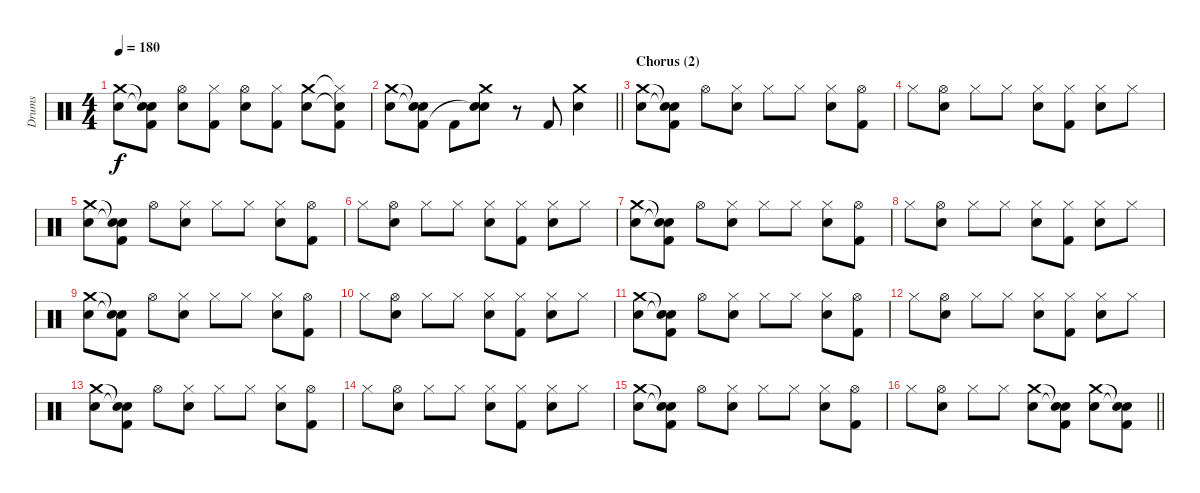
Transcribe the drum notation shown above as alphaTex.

\track ("Drums" "Drums") {instrument percussion}
\staff {score}
\articulation defaults
\ts (4 4)
\tempo 180
\clef neutral
\ks c
("Crash medium (hit)" "Electric Snare (hit)").8{dy f} ("Snare (hit)"{t} "Snare (hit)"{t} "Kick (hit) 2").8 ("Hi-Hat (open)" "Electric Snare (hit)").8 ("Hi-Hat (closed)" "Kick (hit) 2").8 ("Hi-Hat (open)" "Electric Snare (hit)").8 ("Hi-Hat (closed)" "Kick (hit) 2").8 ("Crash medium (hit)" "Electric Snare (hit)").8 ("Hi-Hat (closed)"{t} "Snare (hit)"{t} "Kick (hit) 2").8 |
\barLineRight lightlight
("Crash medium (hit)" "Electric Snare (hit)").8 ("Snare (hit)"{t} "Snare (hit)"{t} "Kick (hit) 2").8 "Kick (hit) 2".8 ("Crash medium (hit)" "Electric Snare (hit)" "Snare (hit)"{t}).8 r.8 "Kick (hit) 2".8 ("Crash medium (hit)" "Electric Snare (hit)").4 |
\section ("" "Chorus (2)")
("Crash medium (hit)" "Electric Snare (hit)").8 ("Snare (hit)"{t} "Snare (hit)"{t} "Kick (hit) 2").8 "Hi-Hat (open)".8 ("Hi-Hat (closed)" "Electric Snare (hit)").8 "Hi-Hat (closed)".8 "Hi-Hat (closed)".8 ("Hi-Hat (closed)" "Electric Snare (hit)").8 ("Hi-Hat (open)" "Kick (hit) 2").8 |
"Hi-Hat (closed)".8 ("Hi-Hat (open)" "Electric Snare (hit)").8 "Hi-Hat (closed)".8 "Hi-Hat (closed)".8 ("Hi-Hat (closed)" "Electric Snare (hit)").8 ("Hi-Hat (closed)" "Kick (hit) 2").8 ("Hi-Hat (closed)" "Electric Snare (hit)").8 "Hi-Hat (closed)".8 |
("Crash medium (hit)" "Electric Snare (hit)").8 ("Snare (hit)"{t} "Snare (hit)"{t} "Kick (hit) 2").8 "Hi-Hat (open)".8 ("Hi-Hat (closed)" "Electric Snare (hit)").8 "Hi-Hat (closed)".8 "Hi-Hat (closed)".8 ("Hi-Hat (closed)" "Electric Snare (hit)").8 ("Hi-Hat (open)" "Kick (hit) 2").8 |
"Hi-Hat (closed)".8 ("Hi-Hat (open)" "Electric Snare (hit)").8 "Hi-Hat (closed)".8 "Hi-Hat (closed)".8 ("Hi-Hat (closed)" "Electric Snare (hit)").8 ("Hi-Hat (closed)" "Kick (hit) 2").8 ("Hi-Hat (closed)" "Electric Snare (hit)").8 "Hi-Hat (closed)".8 |
("Crash medium (hit)" "Electric Snare (hit)").8 ("Snare (hit)"{t} "Snare (hit)"{t} "Kick (hit) 2").8 "Hi-Hat (open)".8 ("Hi-Hat (closed)" "Electric Snare (hit)").8 "Hi-Hat (closed)".8 "Hi-Hat (closed)".8 ("Hi-Hat (closed)" "Electric Snare (hit)").8 ("Hi-Hat (open)" "Kick (hit) 2").8 |
"Hi-Hat (closed)".8 ("Hi-Hat (open)" "Electric Snare (hit)").8 "Hi-Hat (closed)".8 "Hi-Hat (closed)".8 ("Hi-Hat (closed)" "Electric Snare (hit)").8 ("Hi-Hat (closed)" "Kick (hit) 2").8 ("Hi-Hat (closed)" "Electric Snare (hit)").8 "Hi-Hat (closed)".8 |
("Crash medium (hit)" "Electric Snare (hit)").8 ("Snare (hit)"{t} "Snare (hit)"{t} "Kick (hit) 2").8 "Hi-Hat (open)".8 ("Hi-Hat (closed)" "Electric Snare (hit)").8 "Hi-Hat (closed)".8 "Hi-Hat (closed)".8 ("Hi-Hat (closed)" "Electric Snare (hit)").8 ("Hi-Hat (open)" "Kick (hit) 2").8 |
"Hi-Hat (closed)".8 ("Hi-Hat (open)" "Electric Snare (hit)").8 "Hi-Hat (closed)".8 "Hi-Hat (closed)".8 ("Hi-Hat (closed)" "Electric Snare (hit)").8 ("Hi-Hat (closed)" "Kick (hit) 2").8 ("Hi-Hat (closed)" "Electric Snare (hit)").8 "Hi-Hat (closed)".8 |
("Crash medium (hit)" "Electric Snare (hit)").8 ("Snare (hit)"{t} "Snare (hit)"{t} "Kick (hit) 2").8 "Hi-Hat (open)".8 ("Hi-Hat (closed)" "Electric Snare (hit)").8 "Hi-Hat (closed)".8 "Hi-Hat (closed)".8 ("Hi-Hat (closed)" "Electric Snare (hit)").8 ("Hi-Hat (open)" "Kick (hit) 2").8 |
"Hi-Hat (closed)".8 ("Hi-Hat (open)" "Electric Snare (hit)").8 "Hi-Hat (closed)".8 "Hi-Hat (closed)".8 ("Hi-Hat (closed)" "Electric Snare (hit)").8 ("Hi-Hat (closed)" "Kick (hit) 2").8 ("Hi-Hat (closed)" "Electric Snare (hit)").8 "Hi-Hat (closed)".8 |
("Crash medium (hit)" "Electric Snare (hit)").8 ("Snare (hit)"{t} "Snare (hit)"{t} "Kick (hit) 2").8 "Hi-Hat (open)".8 ("Hi-Hat (closed)" "Electric Snare (hit)").8 "Hi-Hat (closed)".8 "Hi-Hat (closed)".8 ("Hi-Hat (closed)" "Electric Snare (hit)").8 ("Hi-Hat (open)" "Kick (hit) 2").8 |
"Hi-Hat (closed)".8 ("Hi-Hat (open)" "Electric Snare (hit)").8 "Hi-Hat (closed)".8 "Hi-Hat (closed)".8 ("Hi-Hat (closed)" "Electric Snare (hit)").8 ("Hi-Hat (closed)" "Kick (hit) 2").8 ("Hi-Hat (closed)" "Electric Snare (hit)").8 "Hi-Hat (closed)".8 |
("Crash medium (hit)" "Electric Snare (hit)").8 ("Snare (hit)"{t} "Snare (hit)"{t} "Kick (hit) 2").8 "Hi-Hat (open)".8 ("Hi-Hat (closed)" "Electric Snare (hit)").8 "Hi-Hat (closed)".8 "Hi-Hat (closed)".8 ("Hi-Hat (closed)" "Electric Snare (hit)").8 ("Hi-Hat (open)" "Kick (hit) 2").8 |
\barLineRight lightlight "Hi-Hat (closed)".8
("Hi-Hat (open)" "Electric Snare (hit)").8 "Hi-Hat (closed)".8 "Hi-Hat (closed)".8 ("Crash medium (hit)" "Electric Snare (hit)").8 ("Snare (hit)"{t} "Snare (hit)"{t} "Kick (hit) 2").8 ("Crash medium (hit)" "Electric Snare (hit)").8 ("Snare (hit)"{t} "Snare (hit)"{t} "Kick (hit) 2").8
